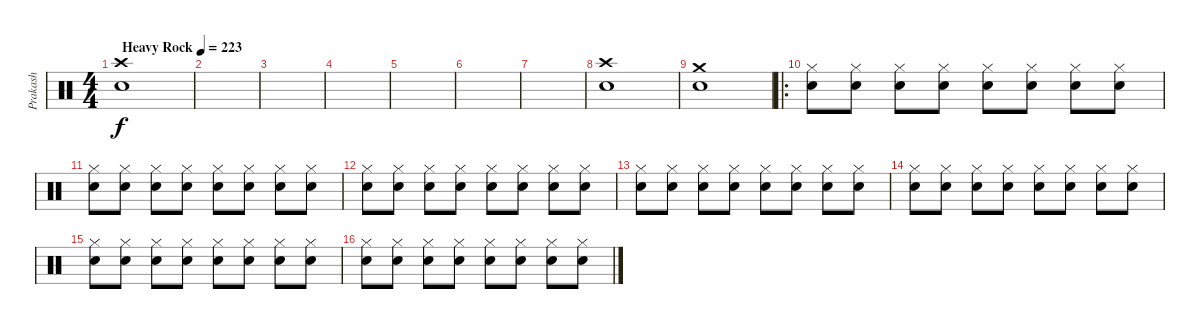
\track ("Prakash" "Prakash") {instrument percussion}
\staff {score}
\articulation defaults
\ts (4 4)
\tempo (223 "Heavy Rock")
\clef neutral
\ks c
("Snare (hit) 2" "Crash high (hit)").1{dy f} |
|
|
|
|
|
|
("Snare (hit) 2" "Crash high (hit)").1 |
("Snare (hit) 2" "Crash medium (hit)").1 |
\ro
("Snare (hit) 2" "Hi-Hat (closed)").8 ("Snare (hit) 2" "Hi-Hat (closed)").8 ("Snare (hit) 2" "Hi-Hat (closed)").8 ("Snare (hit) 2" "Hi-Hat (closed)").8 ("Snare (hit) 2" "Hi-Hat (closed)").8 ("Snare (hit) 2" "Hi-Hat (closed)").8 ("Snare (hit) 2" "Hi-Hat (closed)").8 ("Snare (hit) 2" "Hi-Hat (closed)").8 |
("Snare (hit) 2" "Hi-Hat (closed)").8 ("Snare (hit) 2" "Hi-Hat (closed)").8 ("Snare (hit) 2" "Hi-Hat (closed)").8 ("Snare (hit) 2" "Hi-Hat (closed)").8 ("Snare (hit) 2" "Hi-Hat (closed)").8 ("Snare (hit) 2" "Hi-Hat (closed)").8 ("Snare (hit) 2" "Hi-Hat (closed)").8 ("Snare (hit) 2" "Hi-Hat (closed)").8 |
("Snare (hit) 2" "Hi-Hat (closed)").8 ("Snare (hit) 2" "Hi-Hat (closed)").8 ("Snare (hit) 2" "Hi-Hat (closed)").8 ("Snare (hit) 2" "Hi-Hat (closed)").8 ("Snare (hit) 2" "Hi-Hat (closed)").8 ("Snare (hit) 2" "Hi-Hat (closed)").8 ("Snare (hit) 2" "Hi-Hat (closed)").8 ("Snare (hit) 2" "Hi-Hat (closed)").8 |
("Snare (hit) 2" "Hi-Hat (closed)").8 ("Snare (hit) 2" "Hi-Hat (closed)").8 ("Snare (hit) 2" "Hi-Hat (closed)").8 ("Snare (hit) 2" "Hi-Hat (closed)").8 ("Snare (hit) 2" "Hi-Hat (closed)").8 ("Snare (hit) 2" "Hi-Hat (closed)").8 ("Snare (hit) 2" "Hi-Hat (closed)").8 ("Snare (hit) 2" "Hi-Hat (closed)").8 |
("Snare (hit) 2" "Hi-Hat (closed)").8 ("Snare (hit) 2" "Hi-Hat (closed)").8 ("Snare (hit) 2" "Hi-Hat (closed)").8 ("Snare (hit) 2" "Hi-Hat (closed)").8 ("Snare (hit) 2" "Hi-Hat (closed)").8 ("Snare (hit) 2" "Hi-Hat (closed)").8 ("Snare (hit) 2" "Hi-Hat (closed)").8 ("Snare (hit) 2" "Hi-Hat (closed)").8 |
("Snare (hit) 2" "Hi-Hat (closed)").8 ("Snare (hit) 2" "Hi-Hat (closed)").8 ("Snare (hit) 2" "Hi-Hat (closed)").8 ("Snare (hit) 2" "Hi-Hat (closed)").8 ("Snare (hit) 2" "Hi-Hat (closed)").8 ("Snare (hit) 2" "Hi-Hat (closed)").8 ("Snare (hit) 2" "Hi-Hat (closed)").8 ("Snare (hit) 2" "Hi-Hat (closed)").8 |
("Snare (hit) 2" "Hi-Hat (closed)").8 ("Snare (hit) 2" "Hi-Hat (closed)").8 ("Snare (hit) 2" "Hi-Hat (closed)").8 ("Snare (hit) 2" "Hi-Hat (closed)").8 ("Snare (hit) 2" "Hi-Hat (closed)").8 ("Snare (hit) 2" "Hi-Hat (closed)").8 ("Snare (hit) 2" "Hi-Hat (closed)").8 ("Snare (hit) 2" "Hi-Hat (closed)").8
